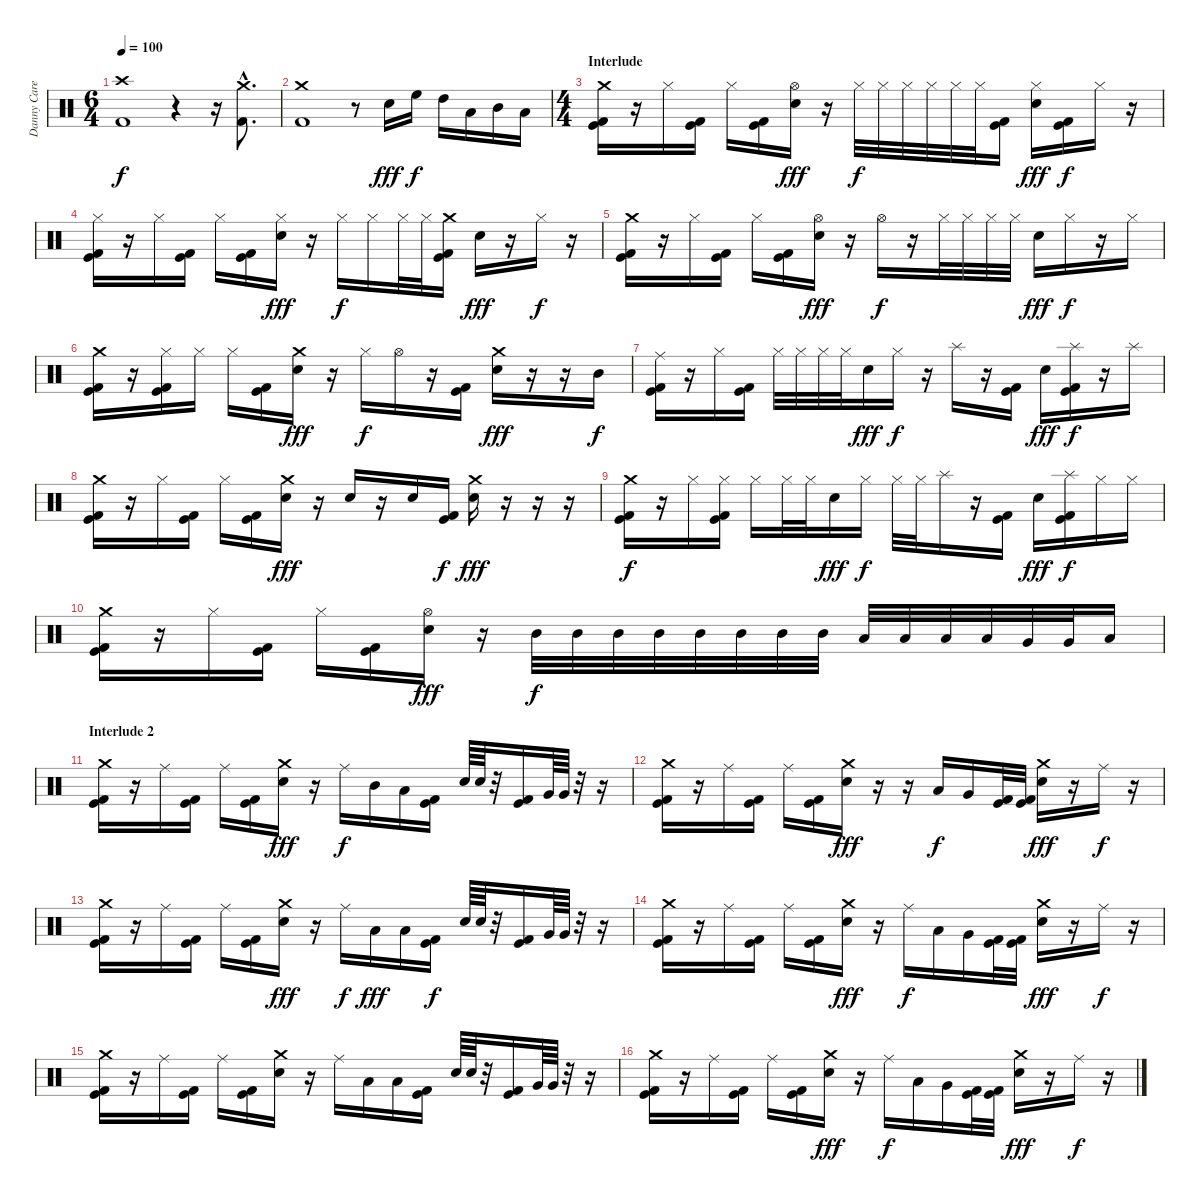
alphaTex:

\track ("Danny Carey - Percussion" "Danny Care") {instrument percussion}
\staff {score}
\articulation defaults
\ts (6 4)
\tempo 100
\clef neutral
\ks c
("Crash high (hit)" "Kick (hit) 2").1{dy f} r.4 r.16 ("Crash medium (hit)"{hac} "Kick (hit) 2"{hac}).8{d} |
("Crash medium (hit)" "Kick (hit) 2").1 r.8 "Electric Snare (hit)".16{dy fff} "High Floor Tom (hit)".16{dy f} "High Tom (hit)".16 "Low Tom (hit)".16 "Mid Tom (hit)".16 "Low Tom (hit)".16 |
\ts (4 4)
\section ("" "Interlude")
("Crash medium (hit)" "Kick (hit)" "Kick (hit) 2").16 r.16 "Hi-Hat (closed)".16 ("Kick (hit)" "Kick (hit) 2").16 "Hi-Hat (closed)".16 ("Kick (hit)" "Kick (hit) 2").16 ("Hi-Hat (open)" "Electric Snare (hit)").16{dy fff} r.16 "Hi-Hat (closed)".32{dy f} "Hi-Hat (closed)".32 "Hi-Hat (closed)".32 "Hi-Hat (closed)".32 "Hi-Hat (closed)".32 "Hi-Hat (closed)".32 ("Kick (hit)" "Kick (hit) 2").16 ("Hi-Hat (closed)" "Electric Snare (hit)").16{dy fff} ("Kick (hit)" "Kick (hit) 2").16{dy f} "Hi-Hat (closed)".16 r.16 |
("Hi-Hat (closed)" "Kick (hit)" "Kick (hit) 2").16 r.16 "Hi-Hat (closed)".16 ("Kick (hit)" "Kick (hit) 2").16 "Hi-Hat (closed)".16 ("Kick (hit)" "Kick (hit) 2").16 ("Hi-Hat (closed)" "Electric Snare (hit)").16{dy fff} r.16 "Hi-Hat (closed)".16{dy f} "Hi-Hat (closed)".16 "Hi-Hat (closed)".32 "Hi-Hat (closed)".32 ("Crash medium (hit)" "Kick (hit)" "Kick (hit) 2").16 "Electric Snare (hit)".16{dy fff} r.16 "Hi-Hat (closed)".16{dy f} r.16 |
("Crash medium (hit)" "Kick (hit)" "Kick (hit) 2").16 r.16 "Hi-Hat (closed)".16 ("Kick (hit)" "Kick (hit) 2").16 "Hi-Hat (closed)".16 ("Kick (hit)" "Kick (hit) 2").16 ("Hi-Hat (open)" "Electric Snare (hit)").16{dy fff} r.16 "Hi-Hat (open)".16{dy f} r.16 "Hi-Hat (closed)".32 "Hi-Hat (closed)".32 "Hi-Hat (closed)".32 "Hi-Hat (closed)".32 "Electric Snare (hit)".16{dy fff} "Hi-Hat (closed)".16{dy f} r.16 "Hi-Hat (closed)".16 |
("Crash medium (hit)" "Kick (hit)" "Kick (hit) 2").16 r.16 ("Hi-Hat (closed)" "Kick (hit)" "Kick (hit) 2").16 "Hi-Hat (closed)".16 "Hi-Hat (closed)".16 ("Kick (hit)" "Kick (hit) 2").16 ("Crash medium (hit)" "Electric Snare (hit)").16{dy fff} r.16 "Hi-Hat (closed)".16{dy f} "Hi-Hat (open)".16 r.16 ("Kick (hit)" "Kick (hit) 2").16 ("Crash medium (hit)" "Electric Snare (hit)").16{dy fff} r.16 r.16 "Mid Tom (hit)".16{dy f} |
("Ride (middle)" "Kick (hit)" "Kick (hit) 2").16 r.16 "Hi-Hat (closed)".16 ("Kick (hit)" "Kick (hit) 2").16 "Hi-Hat (closed)".32 "Hi-Hat (closed)".32 "Hi-Hat (closed)".32 "Hi-Hat (closed)".32 "Electric Snare (hit)".16{dy fff} "Hi-Hat (closed)".16{dy f} r.16 "Splash (hit)".16 r.16 ("Kick (hit)" "Kick (hit) 2").16 "Electric Snare (hit)".16{dy fff} ("Splash (hit)" "Kick (hit)" "Kick (hit) 2").16{dy f} r.16 "Splash (hit)".16 |
("Crash medium (hit)" "Kick (hit)" "Kick (hit) 2").16 r.16 "Hi-Hat (closed)".16 ("Kick (hit)" "Kick (hit) 2").16 "Hi-Hat (closed)".16 ("Kick (hit)" "Kick (hit) 2").16 ("Crash medium (hit)" "Electric Snare (hit)").16{dy fff} r.16 "Electric Snare (hit)".16 r.16 "Electric Snare (hit)".16 ("Kick (hit)" "Kick (hit) 2").16{dy f} ("Crash medium (hit)" "Electric Snare (hit)").16{dy fff} r.16 r.16 r.16 |
("Crash medium (hit)" "Kick (hit)" "Kick (hit) 2").16{dy f} r.16 "Hi-Hat (closed)".16 ("Hi-Hat (closed)" "Kick (hit)" "Kick (hit) 2").16 "Hi-Hat (closed)".16 "Hi-Hat (closed)".32 "Hi-Hat (closed)".32 "Electric Snare (hit)".16{dy fff} "Hi-Hat (closed)".16{dy f} "Hi-Hat (closed)".32 "Hi-Hat (closed)".32 "Splash (hit)".16 r.16 ("Kick (hit)" "Kick (hit) 2").16 "Electric Snare (hit)".16{dy fff} ("Splash (hit)" "Kick (hit)" "Kick (hit) 2").16{dy f} "Hi-Hat (closed)".16 "Hi-Hat (closed)".16 |
("Crash medium (hit)" "Kick (hit)" "Kick (hit) 2").16 r.16 "Hi-Hat (closed)".16 ("Kick (hit)" "Kick (hit) 2").16 "Hi-Hat (closed)".16 ("Kick (hit)" "Kick (hit) 2").16 ("Hi-Hat (open)" "Electric Snare (hit)").16{dy fff} r.16 "Mid Tom (hit)".32{dy f} "Mid Tom (hit)".32 "Mid Tom (hit)".32 "Mid Tom (hit)".32 "Mid Tom (hit)".32 "Mid Tom (hit)".32 "Mid Tom (hit)".32 "Mid Tom (hit)".32 "Low Tom (hit)".32 "Low Tom (hit)".32 "Low Tom (hit)".32 "Low Tom (hit)".32 "Very Low Tom (hit)".32 "Very Low Tom (hit)".32 "Low Floor Tom (hit)".16 |
\section ("" "Interlude 2")
("Crash medium (hit)" "Kick (hit)" "Kick (hit) 2").16 r.16 "Ride (middle)".16 ("Kick (hit)" "Kick (hit) 2").16 "Ride (middle)".16 ("Kick (hit)" "Kick (hit) 2").16 ("Crash medium (hit)" "Electric Snare (hit)").16{dy fff} r.16 "Ride (middle)".16{dy f} "Mid Tom (hit)".16 "Low Tom (hit)".16 ("Kick (hit)" "Kick (hit) 2").16 "Electric Snare (hit)".64 "Electric Snare (hit)".64 r.32 ("Kick (hit)" "Kick (hit) 2").16 "Very Low Tom (hit)".64 "Very Low Tom (hit)".64 r.32 r.16 |
("Crash medium (hit)" "Kick (hit)" "Kick (hit) 2").16 r.16 "Ride (middle)".16 ("Kick (hit)" "Kick (hit) 2").16 "Ride (middle)".16 ("Kick (hit)" "Kick (hit) 2").16 ("Crash medium (hit)" "Electric Snare (hit)").16{dy fff} r.16 r.16 "Low Tom (hit)".16{dy f} "Very Low Tom (hit)".16 ("Kick (hit)" "Kick (hit) 2").32 ("Kick (hit)" "Kick (hit) 2").32 ("Crash medium (hit)" "Electric Snare (hit)").16{dy fff} r.16 "Ride (middle)".16{dy f} r.16 |
("Crash medium (hit)" "Kick (hit)" "Kick (hit) 2").16 r.16 "Ride (middle)".16 ("Kick (hit)" "Kick (hit) 2").16 "Ride (middle)".16 ("Kick (hit)" "Kick (hit) 2").16 ("Crash medium (hit)" "Electric Snare (hit)").16{dy fff} r.16 "Ride (middle)".16{dy f} "Low Tom (hit)".16{dy fff} "Low Tom (hit)".16 ("Kick (hit)" "Kick (hit) 2").16{dy f} "Electric Snare (hit)".64 "Electric Snare (hit)".64 r.32 ("Kick (hit)" "Kick (hit) 2").16 "Very Low Tom (hit)".64 "Very Low Tom (hit)".64 r.32 r.16 |
("Crash medium (hit)" "Kick (hit)" "Kick (hit) 2").16 r.16 "Ride (middle)".16 ("Kick (hit)" "Kick (hit) 2").16 "Ride (middle)".16 ("Kick (hit)" "Kick (hit) 2").16 ("Crash medium (hit)" "Electric Snare (hit)").16{dy fff} r.16 "Ride (middle)".16{dy f} "Low Tom (hit)".16 "Very Low Tom (hit)".16 ("Kick (hit)" "Kick (hit) 2").32 ("Kick (hit)" "Kick (hit) 2").32 ("Crash medium (hit)" "Electric Snare (hit)").16{dy fff} r.16 "Ride (middle)".16{dy f} r.16 |
("Crash medium (hit)" "Kick (hit)" "Kick (hit) 2").16 r.16 "Ride (middle)".16 ("Kick (hit)" "Kick (hit) 2").16 "Ride (middle)".16 ("Kick (hit)" "Kick (hit) 2").16 ("Crash medium (hit)" "Electric Snare (hit)").16 r.16 "Ride (middle)".16 "Low Tom (hit)".16 "Low Tom (hit)".16 ("Kick (hit)" "Kick (hit) 2").16 "Electric Snare (hit)".64 "Electric Snare (hit)".64 r.32 ("Kick (hit)" "Kick (hit) 2").16 "Very Low Tom (hit)".64 "Very Low Tom (hit)".64 r.32 r.16 |
("Crash medium (hit)" "Kick (hit)" "Kick (hit) 2").16 r.16 "Ride (middle)".16 ("Kick (hit)" "Kick (hit) 2").16 "Ride (middle)".16 ("Kick (hit)" "Kick (hit) 2").16 ("Crash medium (hit)" "Electric Snare (hit)").16{dy fff} r.16 "Ride (middle)".16{dy f} "Low Tom (hit)".16 "Very Low Tom (hit)".16 ("Kick (hit)" "Kick (hit) 2").32 ("Kick (hit)" "Kick (hit) 2").32 ("Crash medium (hit)" "Electric Snare (hit)").16{dy fff} r.16 "Ride (middle)".16{dy f} r.16
